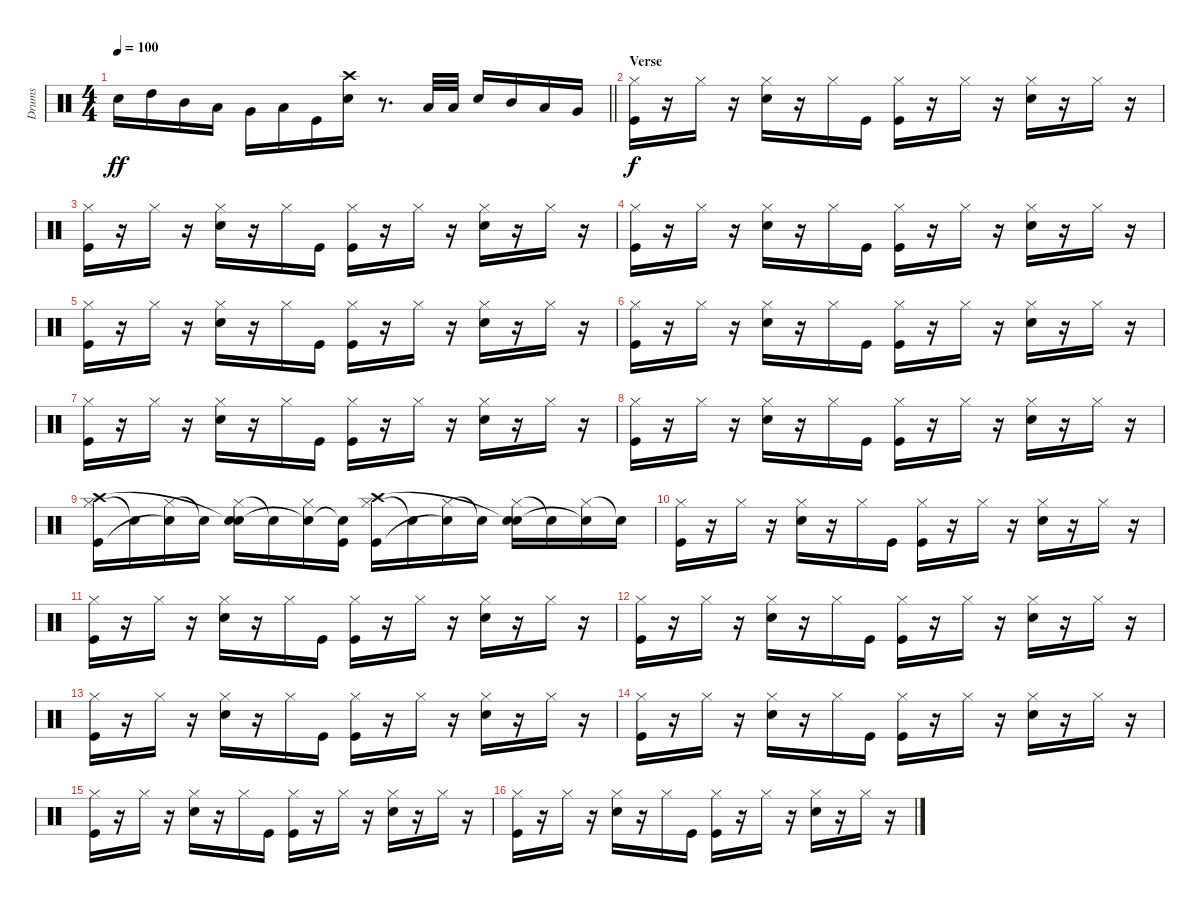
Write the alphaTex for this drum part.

\track ("Drums" "Drums") {instrument percussion}
\staff {score}
\articulation defaults
\ts (4 4)
\tempo 100
\clef neutral
\barLineRight lightlight
\ks c "Electric Snare (hit)".16{dy ff} "High Tom (hit)".16 "Mid Tom (hit)".16 "Low Tom (hit)".16 "Very Low Tom (hit)".16 "Low Floor Tom (hit)".16 "Kick (hit)".16
("Electric Snare (hit)" "Crash high (hit)").16 r.8{d} "Low Floor Tom (hit)".32 "Low Floor Tom (hit)".32 "Electric Snare (hit)".16 "Mid Tom (hit)".16 "Low Tom (hit)".16 "Very Low Tom (hit)".16 |
\section ("" "Verse")
("Hi-Hat (closed)" "Kick (hit)").16{dy f} r.16 "Hi-Hat (closed)".16 r.16 ("Hi-Hat (closed)" "Snare (hit) 2").16 r.16 "Hi-Hat (closed)".16 "Kick (hit)".16 ("Hi-Hat (closed)" "Kick (hit)").16 r.16 "Hi-Hat (closed)".16 r.16 ("Hi-Hat (closed)" "Snare (hit) 2").16 r.16 "Hi-Hat (closed)".16 r.16 |
("Hi-Hat (closed)" "Kick (hit)").16 r.16 "Hi-Hat (closed)".16 r.16 ("Hi-Hat (closed)" "Snare (hit) 2").16 r.16 "Hi-Hat (closed)".16 "Kick (hit)".16 ("Hi-Hat (closed)" "Kick (hit)").16 r.16 "Hi-Hat (closed)".16 r.16 ("Hi-Hat (closed)" "Snare (hit) 2").16 r.16 "Hi-Hat (closed)".16 r.16 |
("Hi-Hat (closed)" "Kick (hit)").16 r.16 "Hi-Hat (closed)".16 r.16 ("Hi-Hat (closed)" "Snare (hit) 2").16 r.16 "Hi-Hat (closed)".16 "Kick (hit)".16 ("Hi-Hat (closed)" "Kick (hit)").16 r.16 "Hi-Hat (closed)".16 r.16 ("Hi-Hat (closed)" "Snare (hit) 2").16 r.16 "Hi-Hat (closed)".16 r.16 |
("Hi-Hat (closed)" "Kick (hit)").16 r.16 "Hi-Hat (closed)".16 r.16 ("Hi-Hat (closed)" "Snare (hit) 2").16 r.16 "Hi-Hat (closed)".16 "Kick (hit)".16 ("Hi-Hat (closed)" "Kick (hit)").16 r.16 "Hi-Hat (closed)".16 r.16 ("Hi-Hat (closed)" "Snare (hit) 2").16 r.16 "Hi-Hat (closed)".16 r.16 |
("Hi-Hat (closed)" "Kick (hit)").16 r.16 "Hi-Hat (closed)".16 r.16 ("Hi-Hat (closed)" "Snare (hit) 2").16 r.16 "Hi-Hat (closed)".16 "Kick (hit)".16 ("Hi-Hat (closed)" "Kick (hit)").16 r.16 "Hi-Hat (closed)".16 r.16 ("Hi-Hat (closed)" "Snare (hit) 2").16 r.16 "Hi-Hat (closed)".16 r.16 |
("Hi-Hat (closed)" "Kick (hit)").16 r.16 "Hi-Hat (closed)".16 r.16 ("Hi-Hat (closed)" "Snare (hit) 2").16 r.16 "Hi-Hat (closed)".16 "Kick (hit)".16 ("Hi-Hat (closed)" "Kick (hit)").16 r.16 "Hi-Hat (closed)".16 r.16 ("Hi-Hat (closed)" "Snare (hit) 2").16 r.16 "Hi-Hat (closed)".16 r.16 |
("Hi-Hat (closed)" "Kick (hit)").16 r.16 "Hi-Hat (closed)".16 r.16 ("Hi-Hat (closed)" "Snare (hit) 2").16 r.16 "Hi-Hat (closed)".16 "Kick (hit)".16 ("Hi-Hat (closed)" "Kick (hit)").16 r.16 "Hi-Hat (closed)".16 r.16 ("Hi-Hat (closed)" "Snare (hit) 2").16 r.16 "Hi-Hat (closed)".16 r.16 |
("Hi-Hat (closed)" "Kick (hit)" "Crash high (hit)").16 "Snare (hit)"{t}.16 ("Hi-Hat (closed)" "Snare (hit)"{t}).16 "Snare (hit)"{t}.16 ("Hi-Hat (closed)" "Snare (hit) 2" "Snare (hit)"{t}).16 "Snare (hit)"{t}.16 ("Hi-Hat (closed)" "Snare (hit)"{t}).16 ("Kick (hit)" "Snare (hit)"{t}).16 ("Hi-Hat (closed)" "Kick (hit)" "Crash high (hit)").16 "Snare (hit)"{t}.16 ("Hi-Hat (closed)" "Snare (hit)"{t}).16 "Snare (hit)"{t}.16 ("Hi-Hat (closed)" "Snare (hit) 2" "Snare (hit)"{t}).16 "Snare (hit)"{t}.16 ("Hi-Hat (closed)" "Snare (hit)"{t}).16 "Snare (hit)"{t}.16 |
("Hi-Hat (closed)" "Kick (hit)").16 r.16 "Hi-Hat (closed)".16 r.16 ("Hi-Hat (closed)" "Snare (hit) 2").16 r.16 "Hi-Hat (closed)".16 "Kick (hit)".16 ("Hi-Hat (closed)" "Kick (hit)").16 r.16 "Hi-Hat (closed)".16 r.16 ("Hi-Hat (closed)" "Snare (hit) 2").16 r.16 "Hi-Hat (closed)".16 r.16 |
("Hi-Hat (closed)" "Kick (hit)").16 r.16 "Hi-Hat (closed)".16 r.16 ("Hi-Hat (closed)" "Snare (hit) 2").16 r.16 "Hi-Hat (closed)".16 "Kick (hit)".16 ("Hi-Hat (closed)" "Kick (hit)").16 r.16 "Hi-Hat (closed)".16 r.16 ("Hi-Hat (closed)" "Snare (hit) 2").16 r.16 "Hi-Hat (closed)".16 r.16 |
("Hi-Hat (closed)" "Kick (hit)").16 r.16 "Hi-Hat (closed)".16 r.16 ("Hi-Hat (closed)" "Snare (hit) 2").16 r.16 "Hi-Hat (closed)".16 "Kick (hit)".16 ("Hi-Hat (closed)" "Kick (hit)").16 r.16 "Hi-Hat (closed)".16 r.16 ("Hi-Hat (closed)" "Snare (hit) 2").16 r.16 "Hi-Hat (closed)".16 r.16 |
("Hi-Hat (closed)" "Kick (hit)").16 r.16 "Hi-Hat (closed)".16 r.16 ("Hi-Hat (closed)" "Snare (hit) 2").16 r.16 "Hi-Hat (closed)".16 "Kick (hit)".16 ("Hi-Hat (closed)" "Kick (hit)").16 r.16 "Hi-Hat (closed)".16 r.16 ("Hi-Hat (closed)" "Snare (hit) 2").16 r.16 "Hi-Hat (closed)".16 r.16 |
("Hi-Hat (closed)" "Kick (hit)").16 r.16 "Hi-Hat (closed)".16 r.16 ("Hi-Hat (closed)" "Snare (hit) 2").16 r.16 "Hi-Hat (closed)".16 "Kick (hit)".16 ("Hi-Hat (closed)" "Kick (hit)").16 r.16 "Hi-Hat (closed)".16 r.16 ("Hi-Hat (closed)" "Snare (hit) 2").16 r.16 "Hi-Hat (closed)".16 r.16 |
("Hi-Hat (closed)" "Kick (hit)").16 r.16 "Hi-Hat (closed)".16 r.16 ("Hi-Hat (closed)" "Snare (hit) 2").16 r.16 "Hi-Hat (closed)".16 "Kick (hit)".16 ("Hi-Hat (closed)" "Kick (hit)").16 r.16 "Hi-Hat (closed)".16 r.16 ("Hi-Hat (closed)" "Snare (hit) 2").16 r.16 "Hi-Hat (closed)".16 r.16 |
("Hi-Hat (closed)" "Kick (hit)").16 r.16 "Hi-Hat (closed)".16 r.16 ("Hi-Hat (closed)" "Snare (hit) 2").16 r.16 "Hi-Hat (closed)".16 "Kick (hit)".16 ("Hi-Hat (closed)" "Kick (hit)").16 r.16 "Hi-Hat (closed)".16 r.16 ("Hi-Hat (closed)" "Snare (hit) 2").16 r.16 "Hi-Hat (closed)".16 r.16
